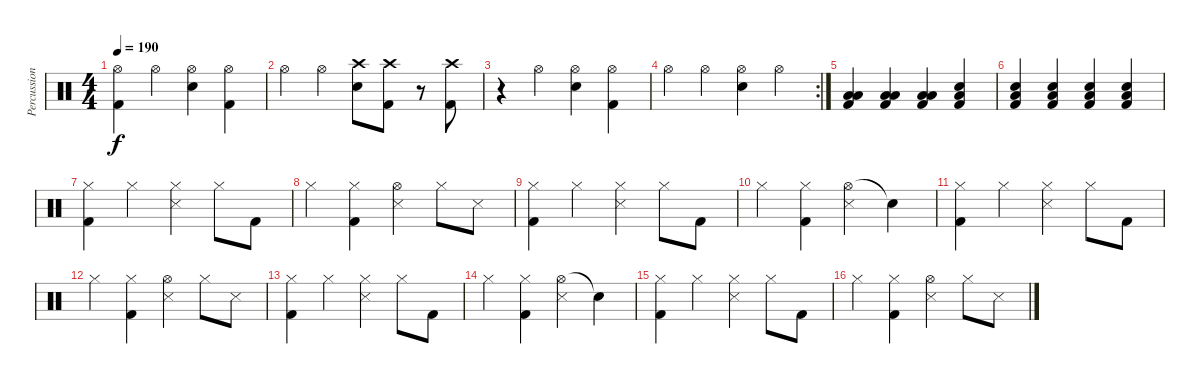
\track ("Percussion" "Percussion") {instrument percussion}
\staff {score}
\articulation defaults
\ts (4 4)
\tempo 190
\clef neutral
\ks c
("Hi-Hat (open)" "Kick (hit) 2").4{dy f} "Hi-Hat (open)".4 ("Hi-Hat (open)" "Electric Snare (hit)").4 ("Hi-Hat (open)" "Kick (hit) 2").4 |
"Hi-Hat (open)".4 "Hi-Hat (open)".4 ("Crash high (hit)" "Electric Snare (hit)").8 ("Crash high (hit)" "Kick (hit) 2").8 r.8 ("Crash high (hit)" "Kick (hit) 2").8 |
r.4 "Hi-Hat (open)".4 ("Hi-Hat (open)" "Electric Snare (hit)").4 ("Hi-Hat (open)" "Kick (hit) 2").4 |
\rc 2 "Hi-Hat (open)".4 "Hi-Hat (open)".4
("Hi-Hat (open)" "Electric Snare (hit)").4 "Hi-Hat (open)".4 |
("Low Tom (hit)" "Low Floor Tom (hit)" "Kick (hit) 2").4 ("Low Tom (hit)" "Low Floor Tom (hit)" "Kick (hit) 2").4 ("Low Tom (hit)" "Low Floor Tom (hit)" "Kick (hit) 2").4 ("Electric Snare (hit)" "Low Tom (hit)" "Kick (hit) 2").4 |
("Electric Snare (hit)" "Low Tom (hit)" "Kick (hit) 2").4 ("Electric Snare (hit)" "Low Tom (hit)" "Kick (hit) 2").4 ("Electric Snare (hit)" "Low Tom (hit)" "Kick (hit) 2").4 ("Electric Snare (hit)" "Low Tom (hit)" "Kick (hit) 2").4 |
("Hi-Hat (closed)" "Kick (hit) 2").4 "Hi-Hat (closed)".4 ("Hi-Hat (closed)" "Snare (side stick) 3").4 "Hi-Hat (closed)".8 "Kick (hit) 2".8 |
"Hi-Hat (closed)".4 ("Hi-Hat (closed)" "Kick (hit) 2").4 ("Hi-Hat (open)" "Snare (side stick) 3").4 "Hi-Hat (closed)".8 "Snare (side stick) 3".8 |
("Hi-Hat (closed)" "Kick (hit) 2").4 "Hi-Hat (closed)".4 ("Hi-Hat (closed)" "Snare (side stick) 3").4 "Hi-Hat (closed)".8 "Kick (hit) 2".8 |
"Hi-Hat (closed)".4 ("Hi-Hat (closed)" "Kick (hit) 2").4 ("Hi-Hat (open)" "Snare (side stick) 3").4 "Snare (hit)"{t}.4 |
("Hi-Hat (closed)" "Kick (hit) 2").4 "Hi-Hat (closed)".4 ("Hi-Hat (closed)" "Snare (side stick) 3").4 "Hi-Hat (closed)".8 "Kick (hit) 2".8 |
"Hi-Hat (closed)".4 ("Hi-Hat (closed)" "Kick (hit) 2").4 ("Hi-Hat (open)" "Snare (side stick) 3").4 "Hi-Hat (closed)".8 "Snare (side stick) 3".8 |
("Hi-Hat (closed)" "Kick (hit) 2").4 "Hi-Hat (closed)".4 ("Hi-Hat (closed)" "Snare (side stick) 3").4 "Hi-Hat (closed)".8 "Kick (hit) 2".8 |
"Hi-Hat (closed)".4 ("Hi-Hat (closed)" "Kick (hit) 2").4 ("Hi-Hat (open)" "Snare (side stick) 3").4 "Snare (hit)"{t}.4 |
("Hi-Hat (closed)" "Kick (hit) 2").4 "Hi-Hat (closed)".4 ("Hi-Hat (closed)" "Snare (side stick) 3").4 "Hi-Hat (closed)".8 "Kick (hit) 2".8 |
"Hi-Hat (closed)".4 ("Hi-Hat (closed)" "Kick (hit) 2").4 ("Hi-Hat (open)" "Snare (side stick) 3").4 "Hi-Hat (closed)".8 "Snare (side stick) 3".8
